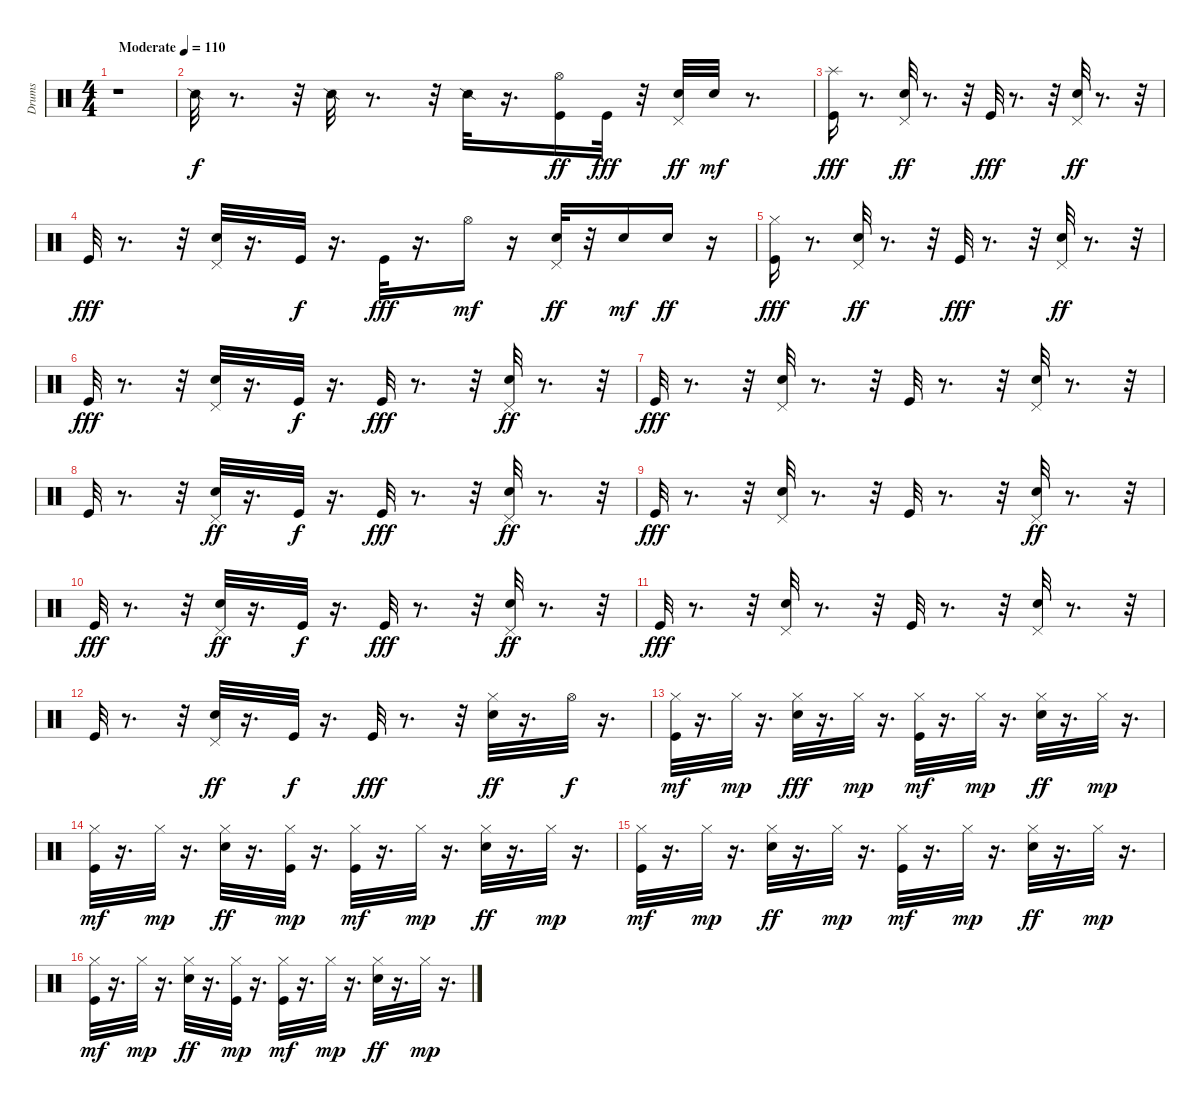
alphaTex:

\track ("Drums" "Drums") {instrument percussion}
\staff {score}
\articulation defaults
\ts (4 4)
\tempo (110 "Moderate")
\clef neutral
\ks c
r.1{dy f} |
"Snare (side stick) 2".32 r.8{d} r.32 "Snare (side stick) 2".32 r.8{d} r.32 "Snare (side stick) 2".32 r.16{d} ("Kick (hit)" "Hi-Hat (open)").16{dy ff} "Kick (hit)".32{dy fff} r.32 ("Electric Snare (hit)" "Pedal Hi-Hat (hit)").32{dy ff} "Electric Snare (hit)".32{dy mf} r.8{d} |
("Kick (hit)" "Splash (hit)").16{dy fff} r.8{d} ("Electric Snare (hit)" "Pedal Hi-Hat (hit)").32{dy ff} r.8{d} r.32 "Kick (hit)".32{dy fff} r.8{d} r.32 ("Electric Snare (hit)" "Pedal Hi-Hat (hit)").32{dy ff} r.8{d} r.32 |
"Kick (hit)".32{dy fff} r.8{d} r.32 ("Electric Snare (hit)" "Pedal Hi-Hat (hit)").32 r.16{d} "Kick (hit)".32{dy f} r.16{d} "Kick (hit)".32{dy fff} r.16{d} "Hi-Hat (open)".16{dy mf} r.16 ("Electric Snare (hit)" "Pedal Hi-Hat (hit)").32{dy ff} r.32 "Electric Snare (hit)".16{dy mf} "Electric Snare (hit)".16{dy ff} r.16 |
("Kick (hit)" "Hi-Hat (closed)").16{dy fff} r.8{d} ("Electric Snare (hit)" "Pedal Hi-Hat (hit)").32{dy ff} r.8{d} r.32 "Kick (hit)".32{dy fff} r.8{d} r.32 ("Electric Snare (hit)" "Pedal Hi-Hat (hit)").32{dy ff} r.8{d} r.32 |
"Kick (hit)".32{dy fff} r.8{d} r.32 ("Electric Snare (hit)" "Pedal Hi-Hat (hit)").32 r.16{d} "Kick (hit)".32{dy f} r.16{d} "Kick (hit)".32{dy fff} r.8{d} r.32 ("Electric Snare (hit)" "Pedal Hi-Hat (hit)").32{dy ff} r.8{d} r.32 |
"Kick (hit)".32{dy fff} r.8{d} r.32 ("Pedal Hi-Hat (hit)" "Electric Snare (hit)").32 r.8{d} r.32 "Kick (hit)".32 r.8{d} r.32 ("Pedal Hi-Hat (hit)" "Electric Snare (hit)").32 r.8{d} r.32 |
"Kick (hit)".32 r.8{d} r.32 ("Pedal Hi-Hat (hit)" "Electric Snare (hit)").32{dy ff} r.16{d} "Kick (hit)".32{dy f} r.16{d} "Kick (hit)".32{dy fff} r.8{d} r.32 ("Pedal Hi-Hat (hit)" "Electric Snare (hit)").32{dy ff} r.8{d} r.32 |
"Kick (hit)".32{dy fff} r.8{d} r.32 ("Pedal Hi-Hat (hit)" "Electric Snare (hit)").32 r.8{d} r.32 "Kick (hit)".32 r.8{d} r.32 ("Pedal Hi-Hat (hit)" "Electric Snare (hit)").32{dy ff} r.8{d} r.32 |
"Kick (hit)".32{dy fff} r.8{d} r.32 ("Electric Snare (hit)" "Pedal Hi-Hat (hit)").32{dy ff} r.16{d} "Kick (hit)".32{dy f} r.16{d} "Kick (hit)".32{dy fff} r.8{d} r.32 ("Electric Snare (hit)" "Pedal Hi-Hat (hit)").32{dy ff} r.8{d} r.32 |
"Kick (hit)".32{dy fff} r.8{d} r.32 ("Pedal Hi-Hat (hit)" "Electric Snare (hit)").32 r.8{d} r.32 "Kick (hit)".32 r.8{d} r.32 ("Pedal Hi-Hat (hit)" "Electric Snare (hit)").32 r.8{d} r.32 |
"Kick (hit)".32 r.8{d} r.32 ("Electric Snare (hit)" "Pedal Hi-Hat (hit)").32{dy ff} r.16{d} "Kick (hit)".32{dy f} r.16{d} "Kick (hit)".32{dy fff} r.8{d} r.32 ("Electric Snare (hit)" "Hi-Hat (closed)").32{dy ff} r.16{d} "Hi-Hat (open)".32{dy f} r.16{d} |
("Kick (hit)" "Hi-Hat (closed)").32{dy mf} r.16{d} "Hi-Hat (closed)".32{dy mp} r.16{d} ("Electric Snare (hit)" "Hi-Hat (closed)").32{dy fff} r.16{d} "Hi-Hat (closed)".32{dy mp} r.16{d} ("Kick (hit)" "Hi-Hat (closed)").32{dy mf} r.16{d} "Hi-Hat (closed)".32{dy mp} r.16{d} ("Electric Snare (hit)" "Hi-Hat (closed)").32{dy ff} r.16{d} "Hi-Hat (closed)".32{dy mp} r.16{d} |
("Kick (hit)" "Hi-Hat (closed)").32{dy mf} r.16{d} "Hi-Hat (closed)".32{dy mp} r.16{d} ("Electric Snare (hit)" "Hi-Hat (closed)").32{dy ff} r.16{d} ("Kick (hit)" "Hi-Hat (closed)").32{dy mp} r.16{d} ("Kick (hit)" "Hi-Hat (closed)").32{dy mf} r.16{d} "Hi-Hat (closed)".32{dy mp} r.16{d} ("Electric Snare (hit)" "Hi-Hat (closed)").32{dy ff} r.16{d} "Hi-Hat (closed)".32{dy mp} r.16{d} |
("Kick (hit)" "Hi-Hat (closed)").32{dy mf} r.16{d} "Hi-Hat (closed)".32{dy mp} r.16{d} ("Electric Snare (hit)" "Hi-Hat (closed)").32{dy ff} r.16{d} "Hi-Hat (closed)".32{dy mp} r.16{d} ("Kick (hit)" "Hi-Hat (closed)").32{dy mf} r.16{d} "Hi-Hat (closed)".32{dy mp} r.16{d} ("Electric Snare (hit)" "Hi-Hat (closed)").32{dy ff} r.16{d} "Hi-Hat (closed)".32{dy mp} r.16{d} |
("Kick (hit)" "Hi-Hat (closed)").32{dy mf} r.16{d} "Hi-Hat (closed)".32{dy mp} r.16{d} ("Electric Snare (hit)" "Hi-Hat (closed)").32{dy ff} r.16{d} ("Kick (hit)" "Hi-Hat (closed)").32{dy mp} r.16{d} ("Kick (hit)" "Hi-Hat (closed)").32{dy mf} r.16{d} "Hi-Hat (closed)".32{dy mp} r.16{d} ("Electric Snare (hit)" "Hi-Hat (closed)").32{dy ff} r.16{d} "Hi-Hat (closed)".32{dy mp} r.16{d}
